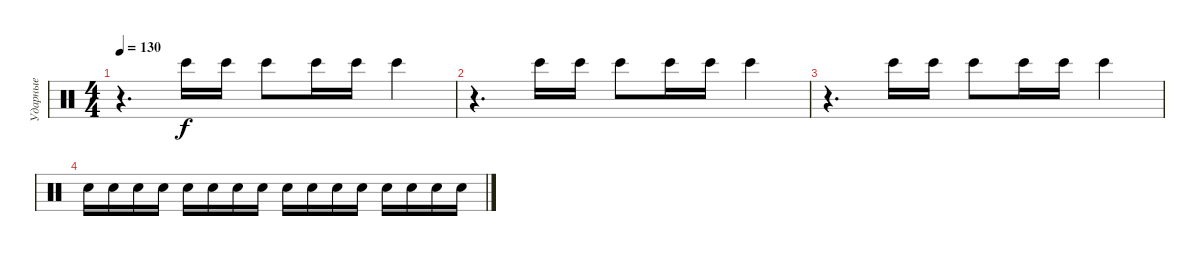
\track ("Ударные" "Ударные") {instrument percussion}
\staff {score}
\articulation defaults
\ts (4 4)
\tempo 130
\clef neutral
\ks c
r.4{d dy f} "Bongo High (hit)".16 "Bongo High (hit)".16 "Bongo High (hit)".8 "Bongo High (hit)".16 "Bongo High (hit)".16 "Bongo High (hit)".4 |
r.4{d} "Bongo High (hit)".16 "Bongo High (hit)".16 "Bongo High (hit)".8 "Bongo High (hit)".16 "Bongo High (hit)".16 "Bongo High (hit)".4 |
r.4{d} "Bongo High (hit)".16 "Bongo High (hit)".16 "Bongo High (hit)".8 "Bongo High (hit)".16 "Bongo High (hit)".16 "Bongo High (hit)".4 |
"Electric Snare (hit)".16 "Electric Snare (hit)".16 "Electric Snare (hit)".16 "Electric Snare (hit)".16 "Electric Snare (hit)".16 "Electric Snare (hit)".16 "Electric Snare (hit)".16 "Electric Snare (hit)".16 "Electric Snare (hit)".16 "Electric Snare (hit)".16 "Electric Snare (hit)".16 "Electric Snare (hit)".16 "Electric Snare (hit)".16 "Electric Snare (hit)".16 "Electric Snare (hit)".16 "Electric Snare (hit)".16
